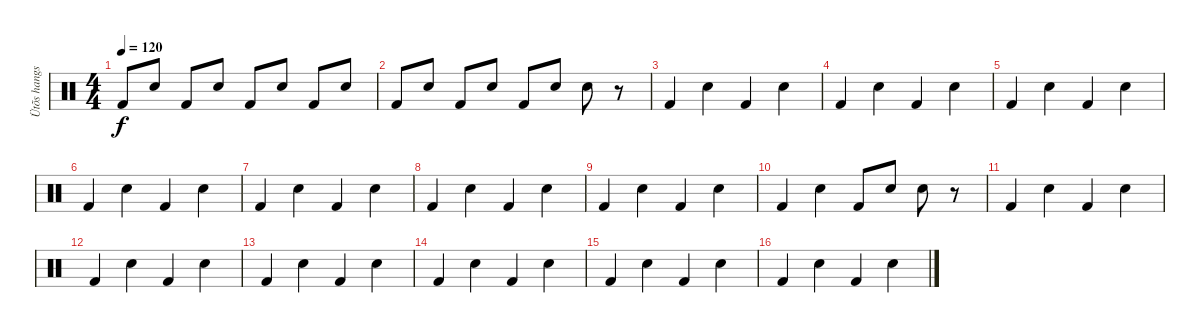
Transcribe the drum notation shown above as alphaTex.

\track ("Ütõs hangszer" "Ütõs hangs") {instrument percussion}
\staff {score}
\articulation defaults
\ts (4 4)
\tempo 120
\clef neutral
\ks c "Kick (hit) 2".8{dy f} "Electric Snare (hit)".8 "Kick (hit) 2".8 "Electric Snare (hit)".8 "Kick (hit) 2".8 "Electric Snare (hit)".8 "Kick (hit) 2".8 "Electric Snare (hit)".8
|
"Kick (hit) 2".8 "Electric Snare (hit)".8 "Kick (hit) 2".8 "Electric Snare (hit)".8 "Kick (hit) 2".8 "Electric Snare (hit)".8 "Electric Snare (hit)".8 r.8 |
"Kick (hit) 2".4 "Electric Snare (hit)".4 "Kick (hit) 2".4 "Electric Snare (hit)".4 |
"Kick (hit) 2".4 "Electric Snare (hit)".4 "Kick (hit) 2".4 "Electric Snare (hit)".4 |
"Kick (hit) 2".4 "Electric Snare (hit)".4 "Kick (hit) 2".4 "Electric Snare (hit)".4 |
"Kick (hit) 2".4 "Electric Snare (hit)".4 "Kick (hit) 2".4 "Electric Snare (hit)".4 |
"Kick (hit) 2".4 "Electric Snare (hit)".4 "Kick (hit) 2".4 "Electric Snare (hit)".4 |
"Kick (hit) 2".4 "Electric Snare (hit)".4 "Kick (hit) 2".4 "Electric Snare (hit)".4 |
"Kick (hit) 2".4 "Electric Snare (hit)".4 "Kick (hit) 2".4 "Electric Snare (hit)".4 |
"Kick (hit) 2".4 "Electric Snare (hit)".4 "Kick (hit) 2".8 "Electric Snare (hit)".8 "Electric Snare (hit)".8 r.8 |
"Kick (hit) 2".4 "Electric Snare (hit)".4 "Kick (hit) 2".4 "Electric Snare (hit)".4 |
"Kick (hit) 2".4 "Electric Snare (hit)".4 "Kick (hit) 2".4 "Electric Snare (hit)".4 |
"Kick (hit) 2".4 "Electric Snare (hit)".4 "Kick (hit) 2".4 "Electric Snare (hit)".4 |
"Kick (hit) 2".4 "Electric Snare (hit)".4 "Kick (hit) 2".4 "Electric Snare (hit)".4 |
"Kick (hit) 2".4 "Electric Snare (hit)".4 "Kick (hit) 2".4 "Electric Snare (hit)".4 |
"Kick (hit) 2".4 "Electric Snare (hit)".4 "Kick (hit) 2".4 "Electric Snare (hit)".4
